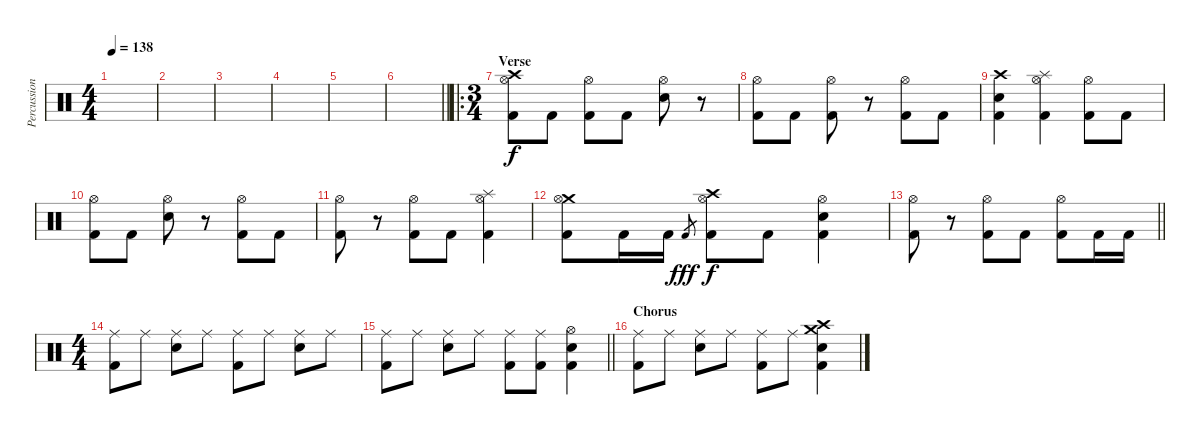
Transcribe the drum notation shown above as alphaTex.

\track ("Percussions" "Percussion") {instrument percussion}
\staff {score}
\articulation defaults
\ts (4 4)
\tempo 138
\clef neutral
\ks c
|
|
|
|
|
\barLineRight lightlight
|
\ro
\ts (3 4)
\section ("" "Verse")
("Crash high (hit)" "Hi-Hat (open)" "Kick (hit) 2").8 "Kick (hit) 2".8 ("Hi-Hat (open)" "Kick (hit) 2").8 "Kick (hit) 2".8 ("Hi-Hat (open)" "Snare (hit) 2").8 r.8 |
("Hi-Hat (open)" "Kick (hit) 2").8 "Kick (hit) 2".8 ("Hi-Hat (open)" "Kick (hit) 2").8 r.8 ("Hi-Hat (open)" "Kick (hit) 2").8 "Kick (hit) 2".8 |
("Crash high (hit)" "Snare (hit) 2" "Kick (hit) 2").4 ("Splash (hit)" "Hi-Hat (open)" "Kick (hit) 2").4 ("Hi-Hat (open)" "Kick (hit) 2").8 "Kick (hit) 2".8 |
("Hi-Hat (open)" "Kick (hit) 2").8 "Kick (hit) 2".8 ("Hi-Hat (open)" "Snare (hit) 2").8 r.8 ("Hi-Hat (open)" "Kick (hit) 2").8 "Kick (hit) 2".8 |
("Hi-Hat (open)" "Kick (hit) 2").8 r.8 ("Hi-Hat (open)" "Kick (hit) 2").8 "Kick (hit) 2".8 ("Splash (hit)" "Hi-Hat (open)" "Kick (hit) 2").4 |
("Crash medium (hit)" "Hi-Hat (open)" "Kick (hit) 2").8 "Kick (hit) 2".16 "Kick (hit) 2".16 "Kick (hit) 2".8{gr dy fff} ("Crash high (hit)" "Hi-Hat (open)" "Kick (hit) 2").8{dy f} "Kick (hit) 2".8 ("Hi-Hat (open)" "Snare (hit) 2" "Kick (hit) 2").4 |
\barLineRight lightlight
("Hi-Hat (open)" "Kick (hit) 2").8 r.8 ("Hi-Hat (open)" "Kick (hit) 2").8 "Kick (hit) 2".8 ("Hi-Hat (open)" "Kick (hit) 2").8 "Kick (hit) 2".16 "Kick (hit) 2".16 |
\ts (4 4)
("Ride (middle)" "Kick (hit) 2").8 "Ride (middle)".8 ("Ride (middle)" "Snare (hit) 2").8 "Ride (middle)".8 ("Ride (middle)" "Kick (hit) 2").8 "Ride (middle)".8 ("Ride (middle)" "Snare (hit) 2").8 "Ride (middle)".8 |
\barLineRight lightlight
("Ride (middle)" "Kick (hit) 2").8 "Ride (middle)".8 ("Ride (middle)" "Snare (hit) 2").8 "Ride (middle)".8 ("Ride (middle)" "Kick (hit) 2").8 ("Ride (middle)" "Kick (hit) 2").8 ("Hi-Hat (open)" "Snare (hit) 2" "Kick (hit) 2").4 |
\section ("" "Chorus")
("Ride (middle)" "Kick (hit) 2").8 "Ride (middle)".8 ("Ride (middle)" "Snare (hit) 2").8 "Ride (middle)".8 ("Ride (middle)" "Kick (hit) 2").8 "Ride (middle)".8 ("Crash medium (hit)" "Crash high (hit)" "Snare (hit) 2" "Kick (hit) 2").4
